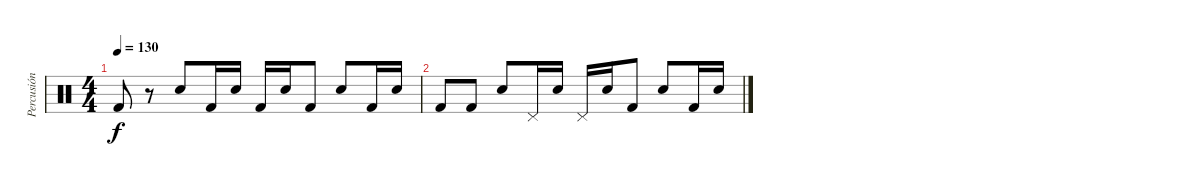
\track ("Percusión" "Percusión") {instrument percussion}
\staff {score}
\articulation defaults
\ts (4 4)
\tempo 130
\clef neutral
\ks c "Kick (hit) 2".8{dy f}
r.8 "Electric Snare (hit)".8 "Kick (hit) 2".16 "Electric Snare (hit)".16 "Kick (hit) 2".16 "Electric Snare (hit)".16 "Kick (hit) 2".8 "Electric Snare (hit)".8 "Kick (hit) 2".16 "Electric Snare (hit)".16 |
"Kick (hit) 2".8 "Kick (hit) 2".8 "Electric Snare (hit)".8 "Pedal Hi-Hat (hit)".16 "Electric Snare (hit)".16 "Pedal Hi-Hat (hit)".16 "Electric Snare (hit)".16 "Kick (hit) 2".8 "Electric Snare (hit)".8 "Kick (hit) 2".16 "Electric Snare (hit)".16
